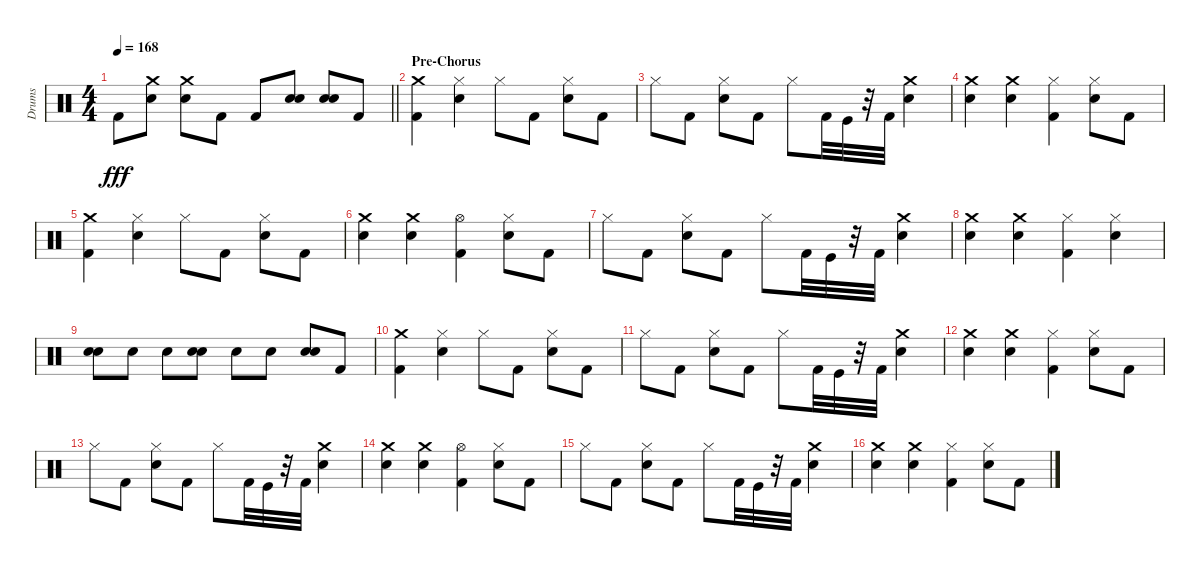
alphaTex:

\track ("Drums" "Drums") {instrument percussion}
\staff {score}
\articulation defaults
\ts (4 4)
\tempo 168
\clef neutral
\barLineRight lightlight
\ks c "Kick (hit) 2".8{dy fff}
("Snare (hit) 2" "Crash medium (hit)").8 ("Snare (hit) 2" "Crash medium (hit)").8 "Kick (hit) 2".8 "Kick (hit) 2".8 ("Snare (hit) 2" "Snare (hit) 2").8 ("Snare (hit) 2" "Snare (hit) 2").8 "Kick (hit) 2".8 |
\section ("" "Pre-Chorus")
("Kick (hit) 2" "Crash medium (hit)").4 ("Hi-Hat (closed)" "Snare (hit) 2").4 "Hi-Hat (closed)".8 "Kick (hit) 2".8 ("Snare (hit) 2" "Hi-Hat (closed)").8 "Kick (hit) 2".8 |
"Hi-Hat (closed)".8 "Kick (hit) 2".8 ("Snare (hit) 2" "Hi-Hat (closed)").8 "Kick (hit) 2".8 "Hi-Hat (closed)".8 "Kick (hit) 2".32 "Kick (hit)".32 r.32 "Kick (hit) 2".32 ("Crash medium (hit)" "Snare (hit) 2").4 |
("Crash medium (hit)" "Snare (hit) 2").4 ("Crash medium (hit)" "Snare (hit) 2").4 ("Hi-Hat (closed)" "Kick (hit) 2").4 ("Snare (hit) 2" "Hi-Hat (closed)").8 "Kick (hit) 2".8 |
("Kick (hit) 2" "Crash medium (hit)").4 ("Hi-Hat (closed)" "Snare (hit) 2").4 "Hi-Hat (closed)".8 "Kick (hit) 2".8 ("Snare (hit) 2" "Hi-Hat (closed)").8 "Kick (hit) 2".8 |
("Crash medium (hit)" "Snare (hit) 2").4 ("Crash medium (hit)" "Snare (hit) 2").4 ("Hi-Hat (open)" "Kick (hit) 2").4 ("Snare (hit) 2" "Hi-Hat (closed)").8 "Kick (hit) 2".8 |
"Hi-Hat (closed)".8 "Kick (hit) 2".8 ("Snare (hit) 2" "Hi-Hat (closed)").8 "Kick (hit) 2".8 "Hi-Hat (closed)".8 "Kick (hit) 2".32 "Kick (hit)".32 r.32 "Kick (hit) 2".32 ("Crash medium (hit)" "Snare (hit) 2").4 |
("Snare (hit) 2" "Crash medium (hit)").4 ("Snare (hit) 2" "Crash medium (hit)").4 ("Kick (hit) 2" "Hi-Hat (closed)").4 ("Hi-Hat (closed)" "Snare (hit) 2").4 |
("Snare (hit) 2" "Snare (hit) 2").8 "Snare (hit) 2".8 "Snare (hit) 2".8 ("Snare (hit) 2" "Snare (hit) 2").8 "Snare (hit) 2".8 "Snare (hit) 2".8 ("Snare (hit) 2" "Snare (hit) 2").8 "Kick (hit) 2".8 |
("Kick (hit) 2" "Crash medium (hit)").4 ("Hi-Hat (closed)" "Snare (hit) 2").4 "Hi-Hat (closed)".8 "Kick (hit) 2".8 ("Snare (hit) 2" "Hi-Hat (closed)").8 "Kick (hit) 2".8 |
"Hi-Hat (closed)".8 "Kick (hit) 2".8 ("Snare (hit) 2" "Hi-Hat (closed)").8 "Kick (hit) 2".8 "Hi-Hat (closed)".8 "Kick (hit) 2".32 "Kick (hit)".32 r.32 "Kick (hit) 2".32 ("Crash medium (hit)" "Snare (hit) 2").4 |
("Crash medium (hit)" "Snare (hit) 2").4 ("Crash medium (hit)" "Snare (hit) 2").4 ("Hi-Hat (closed)" "Kick (hit) 2").4 ("Snare (hit) 2" "Hi-Hat (closed)").8 "Kick (hit) 2".8 |
"Hi-Hat (closed)".8 "Kick (hit) 2".8 ("Snare (hit) 2" "Hi-Hat (closed)").8 "Kick (hit) 2".8 "Hi-Hat (closed)".8 "Kick (hit) 2".32 "Kick (hit)".32 r.32 "Kick (hit) 2".32 ("Crash medium (hit)" "Snare (hit) 2").4 |
("Crash medium (hit)" "Snare (hit) 2").4 ("Crash medium (hit)" "Snare (hit) 2").4 ("Hi-Hat (open)" "Kick (hit) 2").4 ("Snare (hit) 2" "Hi-Hat (closed)").8 "Kick (hit) 2".8 |
"Hi-Hat (closed)".8 "Kick (hit) 2".8 ("Snare (hit) 2" "Hi-Hat (closed)").8 "Kick (hit) 2".8 "Hi-Hat (closed)".8 "Kick (hit) 2".32 "Kick (hit)".32 r.32 "Kick (hit) 2".32 ("Crash medium (hit)" "Snare (hit) 2").4 |
("Crash medium (hit)" "Snare (hit) 2").4 ("Crash medium (hit)" "Snare (hit) 2").4 ("Hi-Hat (closed)" "Kick (hit) 2").4 ("Snare (hit) 2" "Hi-Hat (closed)").8 "Kick (hit) 2".8
